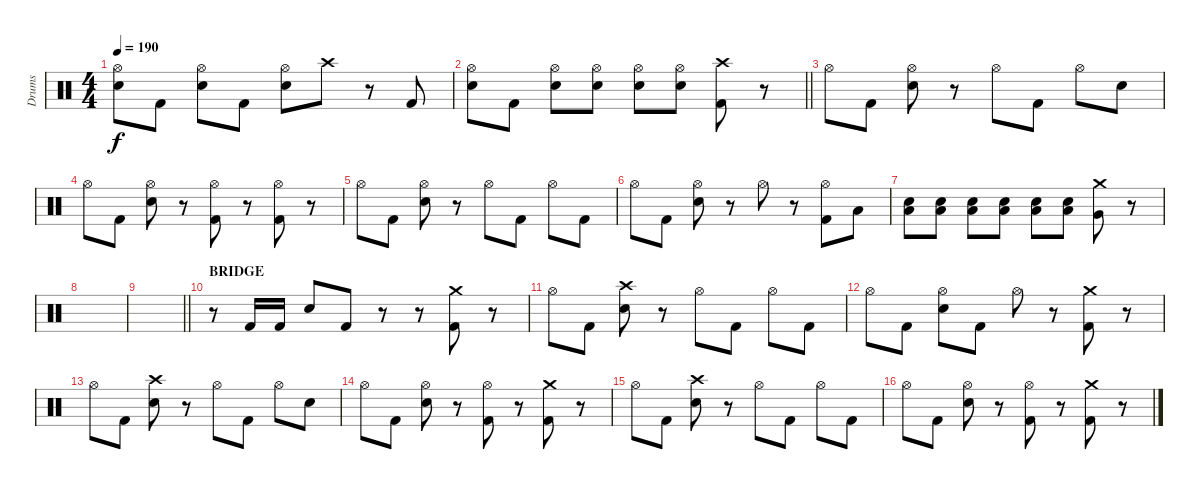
\track ("Drums" "Drums") {instrument percussion}
\staff {score}
\articulation defaults
\ts (4 4)
\tempo 190
\clef neutral
\ks c
("Snare (hit) 2" "Hi-Hat (open)").8{dy f} "Kick (hit) 2".8 ("Snare (hit) 2" "Hi-Hat (open)").8 "Kick (hit) 2".8 ("Snare (hit) 2" "Hi-Hat (open)").8 "Crash high (hit)".8 r.8 "Kick (hit) 2".8 |
\barLineRight lightlight
("Snare (hit) 2" "Hi-Hat (open)").8 "Kick (hit) 2".8 ("Snare (hit) 2" "Hi-Hat (open)").8 ("Snare (hit) 2" "Hi-Hat (open)").8 ("Snare (hit) 2" "Hi-Hat (open)").8 ("Snare (hit) 2" "Hi-Hat (open)").8 ("Kick (hit) 2" "Crash high (hit)").8 r.8 |
"Hi-Hat (open)".8 "Kick (hit) 2".8 ("Snare (hit) 2" "Hi-Hat (open)").8 r.8 "Hi-Hat (open)".8 "Kick (hit) 2".8 "Hi-Hat (open)".8 "Snare (hit) 2".8 |
"Hi-Hat (open)".8 "Kick (hit) 2".8 ("Snare (hit) 2" "Hi-Hat (open)").8 r.8 ("Kick (hit) 2" "Hi-Hat (open)").8 r.8 ("Kick (hit) 2" "Hi-Hat (open)").8 r.8 |
"Hi-Hat (open)".8 "Kick (hit) 2".8 ("Snare (hit) 2" "Hi-Hat (open)").8 r.8 "Hi-Hat (open)".8 "Kick (hit) 2".8 "Hi-Hat (open)".8 "Kick (hit) 2".8 |
"Hi-Hat (open)".8 "Kick (hit) 2".8 ("Snare (hit) 2" "Hi-Hat (open)").8 r.8 "Hi-Hat (open)".8 r.8 ("Kick (hit) 2" "Hi-Hat (open)").8 "Low Floor Tom (hit)".8 |
("Low Floor Tom (hit)" "Snare (hit) 2").8 ("Low Floor Tom (hit)" "Snare (hit) 2").8 ("Low Floor Tom (hit)" "Snare (hit) 2").8 ("Low Floor Tom (hit)" "Snare (hit) 2").8 ("Low Floor Tom (hit)" "Snare (hit) 2").8 ("Low Floor Tom (hit)" "Snare (hit) 2").8 ("Crash medium (hit)" "Very Low Tom (hit)").8 r.8 |
|
\barLineRight lightlight
|
\section ("" "BRIDGE")
r.8 "Kick (hit) 2".16 "Kick (hit) 2".16 "Snare (hit) 2".8 "Kick (hit) 2".8 r.8 r.8 ("Kick (hit) 2" "Crash medium (hit)").8 r.8 |
"Hi-Hat (open)".8 "Kick (hit) 2".8 ("Snare (hit) 2" "Crash high (hit)").8 r.8 "Hi-Hat (open)".8 "Kick (hit) 2".8 "Hi-Hat (open)".8 "Kick (hit) 2".8 |
"Hi-Hat (open)".8 "Kick (hit) 2".8 ("Snare (hit) 2" "Hi-Hat (open)").8 "Kick (hit) 2".8 "Hi-Hat (open)".8 r.8 ("Kick (hit) 2" "Crash medium (hit)").8 r.8 |
"Hi-Hat (open)".8 "Kick (hit) 2".8 ("Snare (hit) 2" "Crash high (hit)").8 r.8 "Hi-Hat (open)".8 "Kick (hit) 2".8 "Hi-Hat (open)".8 "Snare (hit) 2".8 |
"Hi-Hat (open)".8 "Kick (hit) 2".8 ("Snare (hit) 2" "Hi-Hat (open)").8 r.8 ("Kick (hit) 2" "Hi-Hat (open)").8 r.8 ("Kick (hit) 2" "Crash medium (hit)").8 r.8 |
"Hi-Hat (open)".8 "Kick (hit) 2".8 ("Snare (hit) 2" "Crash high (hit)").8 r.8 "Hi-Hat (open)".8 "Kick (hit) 2".8 "Hi-Hat (open)".8 "Kick (hit) 2".8 |
"Hi-Hat (open)".8 "Kick (hit) 2".8 ("Snare (hit) 2" "Hi-Hat (open)").8 r.8 ("Kick (hit) 2" "Hi-Hat (open)").8 r.8 ("Kick (hit) 2" "Crash medium (hit)").8 r.8
